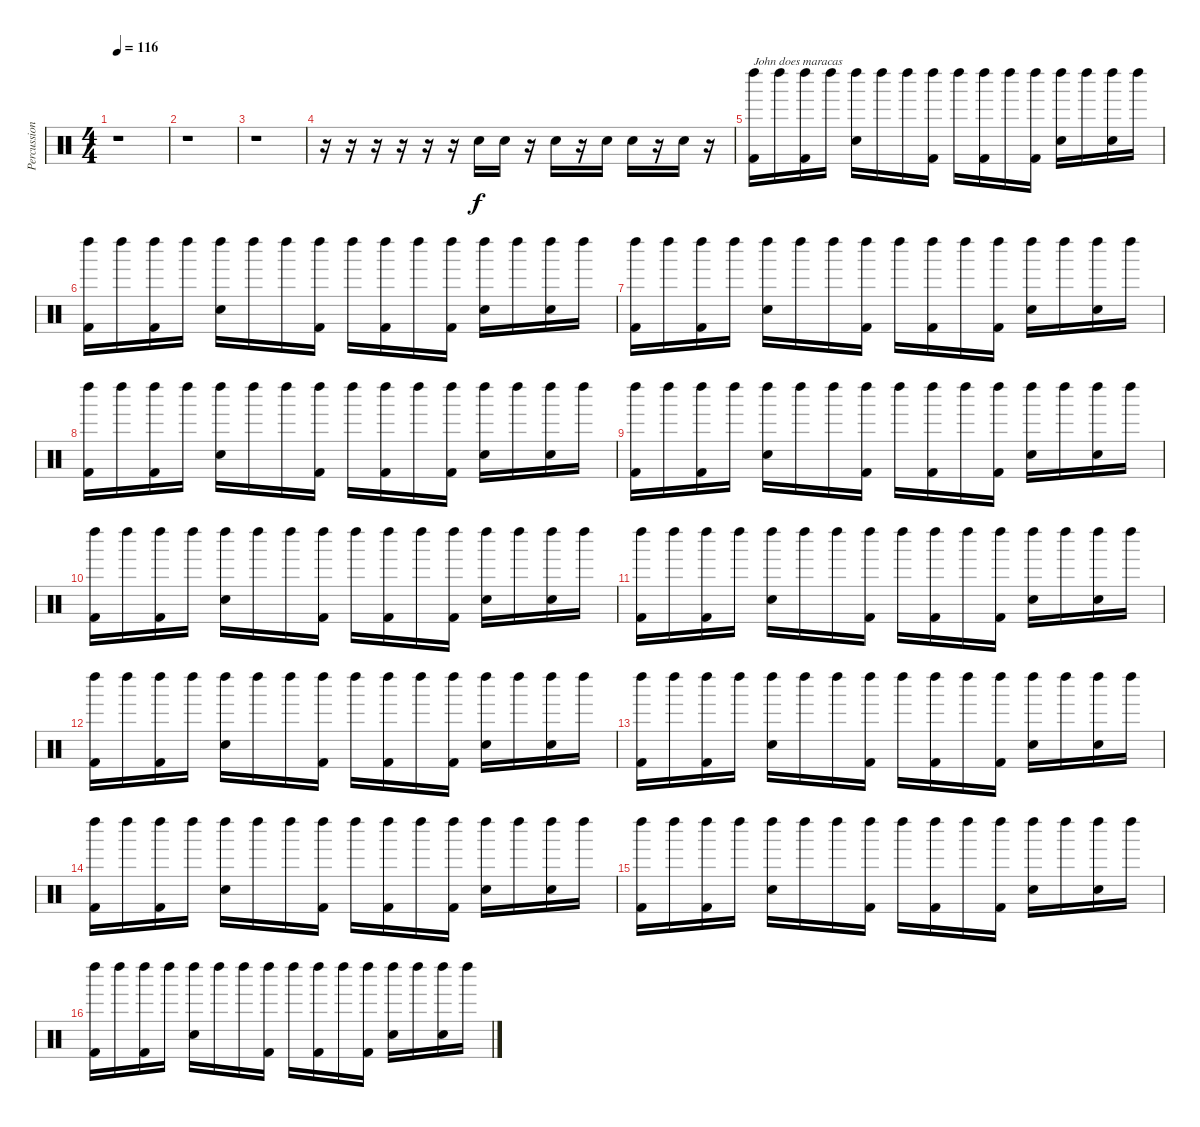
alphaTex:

\track ("Percussions" "Percussion") {instrument percussion}
\staff {score}
\articulation defaults
\ts (4 4)
\tempo 116
\clef neutral
\ks c
r.1{dy f} |
r.1 |
r.1 |
r.16 r.16 r.16 r.16 r.16 r.16 "Snare (hit) 2".16 "Snare (hit) 2".16 r.16 "Snare (hit) 2".16 r.16 "Snare (hit) 2".16 "Snare (hit) 2".16 r.16 "Snare (hit) 2".16 r.16 |
("Left Maraca (hit)" "Kick (hit) 2").16{txt "John does maracas"} "Left Maraca (hit)".16 ("Left Maraca (hit)" "Kick (hit) 2").16 "Left Maraca (hit)".16 ("Left Maraca (hit)" "Snare (hit) 2").16 "Left Maraca (hit)".16 "Left Maraca (hit)".16 ("Left Maraca (hit)" "Kick (hit) 2").16 "Left Maraca (hit)".16 ("Left Maraca (hit)" "Kick (hit) 2").16 "Left Maraca (hit)".16 ("Left Maraca (hit)" "Kick (hit) 2").16 ("Left Maraca (hit)" "Snare (hit) 2").16 "Left Maraca (hit)".16 ("Left Maraca (hit)" "Snare (hit) 2").16 "Left Maraca (hit)".16 |
("Left Maraca (hit)" "Kick (hit) 2").16 "Left Maraca (hit)".16 ("Left Maraca (hit)" "Kick (hit) 2").16 "Left Maraca (hit)".16 ("Left Maraca (hit)" "Snare (hit) 2").16 "Left Maraca (hit)".16 "Left Maraca (hit)".16 ("Left Maraca (hit)" "Kick (hit) 2").16 "Left Maraca (hit)".16 ("Left Maraca (hit)" "Kick (hit) 2").16 "Left Maraca (hit)".16 ("Left Maraca (hit)" "Kick (hit) 2").16 ("Left Maraca (hit)" "Snare (hit) 2").16 "Left Maraca (hit)".16 ("Left Maraca (hit)" "Snare (hit) 2").16 "Left Maraca (hit)".16 |
("Left Maraca (hit)" "Kick (hit) 2").16 "Left Maraca (hit)".16 ("Left Maraca (hit)" "Kick (hit) 2").16 "Left Maraca (hit)".16 ("Left Maraca (hit)" "Snare (hit) 2").16 "Left Maraca (hit)".16 "Left Maraca (hit)".16 ("Left Maraca (hit)" "Kick (hit) 2").16 "Left Maraca (hit)".16 ("Left Maraca (hit)" "Kick (hit) 2").16 "Left Maraca (hit)".16 ("Left Maraca (hit)" "Kick (hit) 2").16 ("Left Maraca (hit)" "Snare (hit) 2").16 "Left Maraca (hit)".16 ("Left Maraca (hit)" "Snare (hit) 2").16 "Left Maraca (hit)".16 |
("Left Maraca (hit)" "Kick (hit) 2").16 "Left Maraca (hit)".16 ("Left Maraca (hit)" "Kick (hit) 2").16 "Left Maraca (hit)".16 ("Left Maraca (hit)" "Snare (hit) 2").16 "Left Maraca (hit)".16 "Left Maraca (hit)".16 ("Left Maraca (hit)" "Kick (hit) 2").16 "Left Maraca (hit)".16 ("Left Maraca (hit)" "Kick (hit) 2").16 "Left Maraca (hit)".16 ("Left Maraca (hit)" "Kick (hit) 2").16 ("Left Maraca (hit)" "Snare (hit) 2").16 "Left Maraca (hit)".16 ("Left Maraca (hit)" "Snare (hit) 2").16 "Left Maraca (hit)".16 |
("Left Maraca (hit)" "Kick (hit) 2").16 "Left Maraca (hit)".16 ("Left Maraca (hit)" "Kick (hit) 2").16 "Left Maraca (hit)".16 ("Left Maraca (hit)" "Snare (hit) 2").16 "Left Maraca (hit)".16 "Left Maraca (hit)".16 ("Left Maraca (hit)" "Kick (hit) 2").16 "Left Maraca (hit)".16 ("Left Maraca (hit)" "Kick (hit) 2").16 "Left Maraca (hit)".16 ("Left Maraca (hit)" "Kick (hit) 2").16 ("Left Maraca (hit)" "Snare (hit) 2").16 "Left Maraca (hit)".16 ("Left Maraca (hit)" "Snare (hit) 2").16 "Left Maraca (hit)".16 |
("Left Maraca (hit)" "Kick (hit) 2").16 "Left Maraca (hit)".16 ("Left Maraca (hit)" "Kick (hit) 2").16 "Left Maraca (hit)".16 ("Left Maraca (hit)" "Snare (hit) 2").16 "Left Maraca (hit)".16 "Left Maraca (hit)".16 ("Left Maraca (hit)" "Kick (hit) 2").16 "Left Maraca (hit)".16 ("Left Maraca (hit)" "Kick (hit) 2").16 "Left Maraca (hit)".16 ("Left Maraca (hit)" "Kick (hit) 2").16 ("Left Maraca (hit)" "Snare (hit) 2").16 "Left Maraca (hit)".16 ("Left Maraca (hit)" "Snare (hit) 2").16 "Left Maraca (hit)".16 |
("Left Maraca (hit)" "Kick (hit) 2").16 "Left Maraca (hit)".16 ("Left Maraca (hit)" "Kick (hit) 2").16 "Left Maraca (hit)".16 ("Left Maraca (hit)" "Snare (hit) 2").16 "Left Maraca (hit)".16 "Left Maraca (hit)".16 ("Left Maraca (hit)" "Kick (hit) 2").16 "Left Maraca (hit)".16 ("Left Maraca (hit)" "Kick (hit) 2").16 "Left Maraca (hit)".16 ("Left Maraca (hit)" "Kick (hit) 2").16 ("Left Maraca (hit)" "Snare (hit) 2").16 "Left Maraca (hit)".16 ("Left Maraca (hit)" "Snare (hit) 2").16 "Left Maraca (hit)".16 |
("Left Maraca (hit)" "Kick (hit) 2").16 "Left Maraca (hit)".16 ("Left Maraca (hit)" "Kick (hit) 2").16 "Left Maraca (hit)".16 ("Left Maraca (hit)" "Snare (hit) 2").16 "Left Maraca (hit)".16 "Left Maraca (hit)".16 ("Left Maraca (hit)" "Kick (hit) 2").16 "Left Maraca (hit)".16 ("Left Maraca (hit)" "Kick (hit) 2").16 "Left Maraca (hit)".16 ("Left Maraca (hit)" "Kick (hit) 2").16 ("Left Maraca (hit)" "Snare (hit) 2").16 "Left Maraca (hit)".16 ("Left Maraca (hit)" "Snare (hit) 2").16 "Left Maraca (hit)".16 |
("Left Maraca (hit)" "Kick (hit) 2").16 "Left Maraca (hit)".16 ("Left Maraca (hit)" "Kick (hit) 2").16 "Left Maraca (hit)".16 ("Left Maraca (hit)" "Snare (hit) 2").16 "Left Maraca (hit)".16 "Left Maraca (hit)".16 ("Left Maraca (hit)" "Kick (hit) 2").16 "Left Maraca (hit)".16 ("Left Maraca (hit)" "Kick (hit) 2").16 "Left Maraca (hit)".16 ("Left Maraca (hit)" "Kick (hit) 2").16 ("Left Maraca (hit)" "Snare (hit) 2").16 "Left Maraca (hit)".16 ("Left Maraca (hit)" "Snare (hit) 2").16 "Left Maraca (hit)".16 |
("Left Maraca (hit)" "Kick (hit) 2").16 "Left Maraca (hit)".16 ("Left Maraca (hit)" "Kick (hit) 2").16 "Left Maraca (hit)".16 ("Left Maraca (hit)" "Snare (hit) 2").16 "Left Maraca (hit)".16 "Left Maraca (hit)".16 ("Left Maraca (hit)" "Kick (hit) 2").16 "Left Maraca (hit)".16 ("Left Maraca (hit)" "Kick (hit) 2").16 "Left Maraca (hit)".16 ("Left Maraca (hit)" "Kick (hit) 2").16 ("Left Maraca (hit)" "Snare (hit) 2").16 "Left Maraca (hit)".16 ("Left Maraca (hit)" "Snare (hit) 2").16 "Left Maraca (hit)".16 |
("Left Maraca (hit)" "Kick (hit) 2").16 "Left Maraca (hit)".16 ("Left Maraca (hit)" "Kick (hit) 2").16 "Left Maraca (hit)".16 ("Left Maraca (hit)" "Snare (hit) 2").16 "Left Maraca (hit)".16 "Left Maraca (hit)".16 ("Left Maraca (hit)" "Kick (hit) 2").16 "Left Maraca (hit)".16 ("Left Maraca (hit)" "Kick (hit) 2").16 "Left Maraca (hit)".16 ("Left Maraca (hit)" "Kick (hit) 2").16 ("Left Maraca (hit)" "Snare (hit) 2").16 "Left Maraca (hit)".16 ("Left Maraca (hit)" "Snare (hit) 2").16 "Left Maraca (hit)".16 |
("Left Maraca (hit)" "Kick (hit) 2").16 "Left Maraca (hit)".16 ("Left Maraca (hit)" "Kick (hit) 2").16 "Left Maraca (hit)".16 ("Left Maraca (hit)" "Snare (hit) 2").16 "Left Maraca (hit)".16 "Left Maraca (hit)".16 ("Left Maraca (hit)" "Kick (hit) 2").16 "Left Maraca (hit)".16 ("Left Maraca (hit)" "Kick (hit) 2").16 "Left Maraca (hit)".16 ("Left Maraca (hit)" "Kick (hit) 2").16 ("Left Maraca (hit)" "Snare (hit) 2").16 "Left Maraca (hit)".16 ("Left Maraca (hit)" "Snare (hit) 2").16 "Left Maraca (hit)".16
